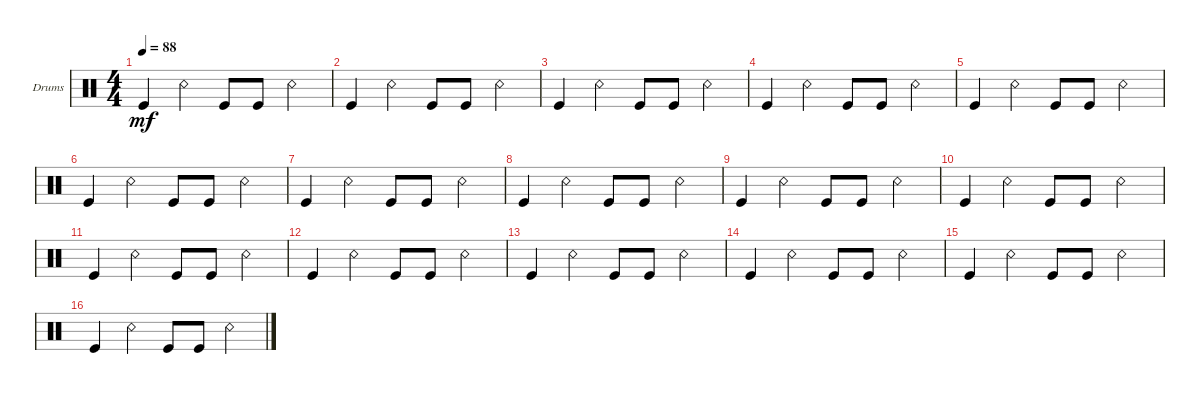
\bracketExtendMode groupsimilarinstruments
\firstSystemTrackNameOrientation horizontal
\otherSystemsTrackNameOrientation horizontal
\track ("Drumkit" "Drums") {instrument percussion}
\staff {score}
\articulation defaults
\ts (4 4)
\tempo 88
\clef neutral
\scale
0.333333
\ks c "Kick (hit)".4{dy mf} "Snare (rim shot)".4 "Kick (hit)".8 "Kick (hit)".8 "Snare (rim shot)".4
|
\scale
0.333333 "Kick (hit)".4 "Snare (rim shot)".4 "Kick (hit)".8 "Kick (hit)".8 "Snare (rim shot)".4 |
\scale
0.333333 "Kick (hit)".4 "Snare (rim shot)".4 "Kick (hit)".8 "Kick (hit)".8 "Snare (rim shot)".4 |
\scale
0.333333 "Kick (hit)".4 "Snare (rim shot)".4 "Kick (hit)".8 "Kick (hit)".8 "Snare (rim shot)".4 |
\scale
0.333333 "Kick (hit)".4 "Snare (rim shot)".4 "Kick (hit)".8 "Kick (hit)".8 "Snare (rim shot)".4 |
\scale
0.333333 "Kick (hit)".4 "Snare (rim shot)".4 "Kick (hit)".8 "Kick (hit)".8 "Snare (rim shot)".4 |
\scale
0.333333 "Kick (hit)".4 "Snare (rim shot)".4 "Kick (hit)".8 "Kick (hit)".8 "Snare (rim shot)".4 |
\scale
0.333333 "Kick (hit)".4 "Snare (rim shot)".4 "Kick (hit)".8 "Kick (hit)".8 "Snare (rim shot)".4 |
\scale
0.333333 "Kick (hit)".4 "Snare (rim shot)".4 "Kick (hit)".8 "Kick (hit)".8 "Snare (rim shot)".4 |
\scale
0.333333 "Kick (hit)".4 "Snare (rim shot)".4 "Kick (hit)".8 "Kick (hit)".8 "Snare (rim shot)".4 |
\scale
0.333333 "Kick (hit)".4 "Snare (rim shot)".4 "Kick (hit)".8 "Kick (hit)".8 "Snare (rim shot)".4 |
\scale
0.333333 "Kick (hit)".4 "Snare (rim shot)".4 "Kick (hit)".8 "Kick (hit)".8 "Snare (rim shot)".4 |
\scale
0.333333 "Kick (hit)".4 "Snare (rim shot)".4 "Kick (hit)".8 "Kick (hit)".8 "Snare (rim shot)".4 |
\scale
0.333333 "Kick (hit)".4 "Snare (rim shot)".4 "Kick (hit)".8 "Kick (hit)".8 "Snare (rim shot)".4 |
\scale
0.333333 "Kick (hit)".4 "Snare (rim shot)".4 "Kick (hit)".8 "Kick (hit)".8 "Snare (rim shot)".4 |
\scale
0.333333 "Kick (hit)".4 "Snare (rim shot)".4 "Kick (hit)".8 "Kick (hit)".8 "Snare (rim shot)".4
